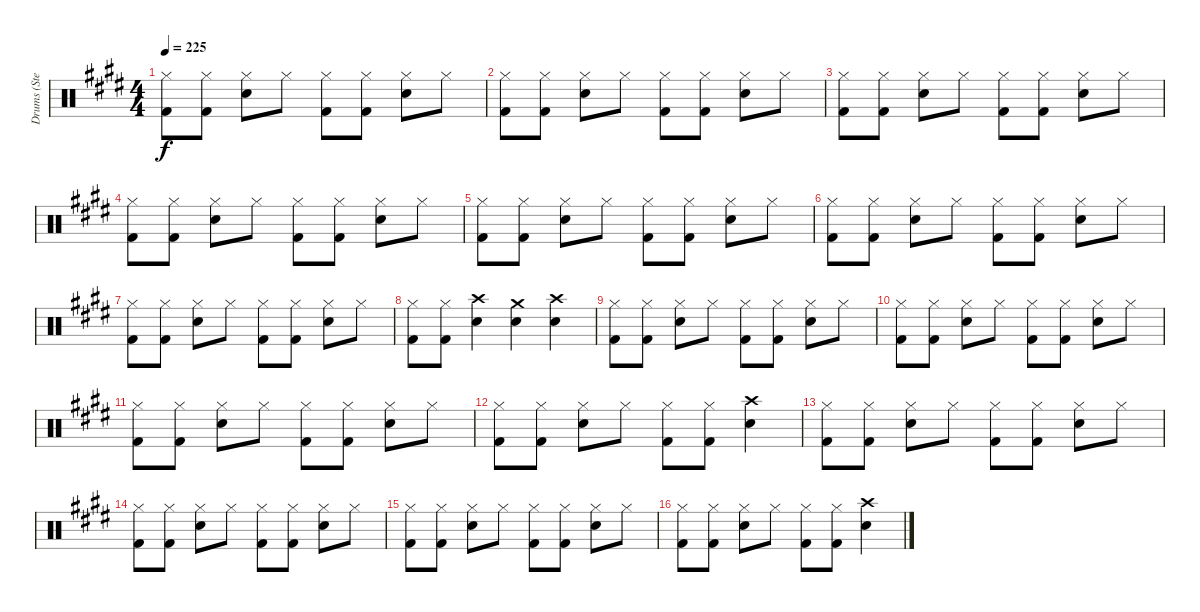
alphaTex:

\track ("Drums (Steven)" "Drums (Ste") {instrument percussion}
\staff {score}
\articulation defaults
\ts (4 4)
\tempo 225
\clef neutral
\ks e
("Hi-Hat (closed)" "Kick (hit) 2").8{dy f} ("Hi-Hat (closed)" "Kick (hit) 2").8 ("Hi-Hat (closed)" "Snare (hit) 2").8 "Hi-Hat (closed)".8 ("Hi-Hat (closed)" "Kick (hit) 2").8 ("Hi-Hat (closed)" "Kick (hit) 2").8 ("Hi-Hat (closed)" "Snare (hit) 2").8 "Hi-Hat (closed)".8 |
("Hi-Hat (closed)" "Kick (hit) 2").8 ("Hi-Hat (closed)" "Kick (hit) 2").8 ("Hi-Hat (closed)" "Snare (hit) 2").8 "Hi-Hat (closed)".8 ("Hi-Hat (closed)" "Kick (hit) 2").8 ("Hi-Hat (closed)" "Kick (hit) 2").8 ("Hi-Hat (closed)" "Snare (hit) 2").8 "Hi-Hat (closed)".8 |
("Hi-Hat (closed)" "Kick (hit) 2").8 ("Hi-Hat (closed)" "Kick (hit) 2").8 ("Hi-Hat (closed)" "Snare (hit) 2").8 "Hi-Hat (closed)".8 ("Hi-Hat (closed)" "Kick (hit) 2").8 ("Hi-Hat (closed)" "Kick (hit) 2").8 ("Hi-Hat (closed)" "Snare (hit) 2").8 "Hi-Hat (closed)".8 |
("Hi-Hat (closed)" "Kick (hit) 2").8 ("Hi-Hat (closed)" "Kick (hit) 2").8 ("Hi-Hat (closed)" "Snare (hit) 2").8 "Hi-Hat (closed)".8 ("Hi-Hat (closed)" "Kick (hit) 2").8 ("Hi-Hat (closed)" "Kick (hit) 2").8 ("Hi-Hat (closed)" "Snare (hit) 2").8 "Hi-Hat (closed)".8 |
("Hi-Hat (closed)" "Kick (hit) 2").8 ("Hi-Hat (closed)" "Kick (hit) 2").8 ("Hi-Hat (closed)" "Snare (hit) 2").8 "Hi-Hat (closed)".8 ("Hi-Hat (closed)" "Kick (hit) 2").8 ("Hi-Hat (closed)" "Kick (hit) 2").8 ("Hi-Hat (closed)" "Snare (hit) 2").8 "Hi-Hat (closed)".8 |
("Hi-Hat (closed)" "Kick (hit) 2").8 ("Hi-Hat (closed)" "Kick (hit) 2").8 ("Hi-Hat (closed)" "Snare (hit) 2").8 "Hi-Hat (closed)".8 ("Hi-Hat (closed)" "Kick (hit) 2").8 ("Hi-Hat (closed)" "Kick (hit) 2").8 ("Hi-Hat (closed)" "Snare (hit) 2").8 "Hi-Hat (closed)".8 |
("Hi-Hat (closed)" "Kick (hit) 2").8 ("Hi-Hat (closed)" "Kick (hit) 2").8 ("Hi-Hat (closed)" "Snare (hit) 2").8 "Hi-Hat (closed)".8 ("Hi-Hat (closed)" "Kick (hit) 2").8 ("Hi-Hat (closed)" "Kick (hit) 2").8 ("Hi-Hat (closed)" "Snare (hit) 2").8 "Hi-Hat (closed)".8 |
("Hi-Hat (closed)" "Kick (hit) 2").8 ("Hi-Hat (closed)" "Kick (hit) 2").8 ("Crash high (hit)" "Snare (hit) 2").4 ("Crash medium (hit)" "Snare (hit) 2").4 ("Crash high (hit)" "Snare (hit) 2").4 |
("Hi-Hat (closed)" "Kick (hit) 2").8 ("Hi-Hat (closed)" "Kick (hit) 2").8 ("Hi-Hat (closed)" "Snare (hit) 2").8 "Hi-Hat (closed)".8 ("Hi-Hat (closed)" "Kick (hit) 2").8 ("Hi-Hat (closed)" "Kick (hit) 2").8 ("Hi-Hat (closed)" "Snare (hit) 2").8 "Hi-Hat (closed)".8 |
("Hi-Hat (closed)" "Kick (hit) 2").8 ("Hi-Hat (closed)" "Kick (hit) 2").8 ("Hi-Hat (closed)" "Snare (hit) 2").8 "Hi-Hat (closed)".8 ("Hi-Hat (closed)" "Kick (hit) 2").8 ("Hi-Hat (closed)" "Kick (hit) 2").8 ("Hi-Hat (closed)" "Snare (hit) 2").8 "Hi-Hat (closed)".8 |
("Hi-Hat (closed)" "Kick (hit) 2").8 ("Hi-Hat (closed)" "Kick (hit) 2").8 ("Hi-Hat (closed)" "Snare (hit) 2").8 "Hi-Hat (closed)".8 ("Hi-Hat (closed)" "Kick (hit) 2").8 ("Hi-Hat (closed)" "Kick (hit) 2").8 ("Hi-Hat (closed)" "Snare (hit) 2").8 "Hi-Hat (closed)".8 |
("Hi-Hat (closed)" "Kick (hit) 2").8 ("Hi-Hat (closed)" "Kick (hit) 2").8 ("Hi-Hat (closed)" "Snare (hit) 2").8 "Hi-Hat (closed)".8 ("Hi-Hat (closed)" "Kick (hit) 2").8 ("Hi-Hat (closed)" "Kick (hit) 2").8 ("Crash high (hit)" "Snare (hit) 2").4 |
("Hi-Hat (closed)" "Kick (hit) 2").8 ("Hi-Hat (closed)" "Kick (hit) 2").8 ("Hi-Hat (closed)" "Snare (hit) 2").8 "Hi-Hat (closed)".8 ("Hi-Hat (closed)" "Kick (hit) 2").8 ("Hi-Hat (closed)" "Kick (hit) 2").8 ("Hi-Hat (closed)" "Snare (hit) 2").8 "Hi-Hat (closed)".8 |
("Hi-Hat (closed)" "Kick (hit) 2").8 ("Hi-Hat (closed)" "Kick (hit) 2").8 ("Hi-Hat (closed)" "Snare (hit) 2").8 "Hi-Hat (closed)".8 ("Hi-Hat (closed)" "Kick (hit) 2").8 ("Hi-Hat (closed)" "Kick (hit) 2").8 ("Hi-Hat (closed)" "Snare (hit) 2").8 "Hi-Hat (closed)".8 |
("Hi-Hat (closed)" "Kick (hit) 2").8 ("Hi-Hat (closed)" "Kick (hit) 2").8 ("Hi-Hat (closed)" "Snare (hit) 2").8 "Hi-Hat (closed)".8 ("Hi-Hat (closed)" "Kick (hit) 2").8 ("Hi-Hat (closed)" "Kick (hit) 2").8 ("Hi-Hat (closed)" "Snare (hit) 2").8 "Hi-Hat (closed)".8 |
("Hi-Hat (closed)" "Kick (hit) 2").8 ("Hi-Hat (closed)" "Kick (hit) 2").8 ("Hi-Hat (closed)" "Snare (hit) 2").8 "Hi-Hat (closed)".8 ("Hi-Hat (closed)" "Kick (hit) 2").8 ("Hi-Hat (closed)" "Kick (hit) 2").8 ("Crash high (hit)" "Snare (hit) 2").4
